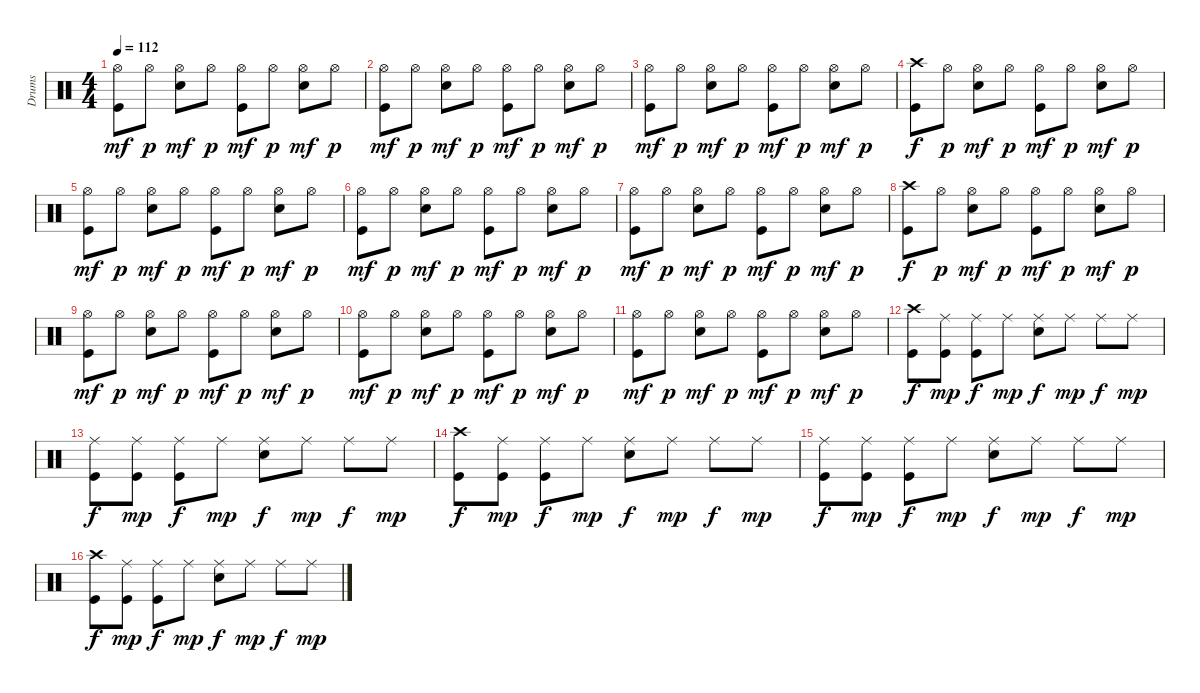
\track ("Drums" "Drums") {instrument percussion}
\staff {score}
\articulation defaults
\ts (4 4)
\tempo 112
\clef neutral
\ks c
("Hi-Hat (open)" "Kick (hit)").8{dy mf} "Hi-Hat (open)".8{dy p} ("Hi-Hat (open)" "Snare (hit) 2").8{dy mf} "Hi-Hat (open)".8{dy p} ("Hi-Hat (open)" "Kick (hit)").8{dy mf} "Hi-Hat (open)".8{dy p} ("Hi-Hat (open)" "Snare (hit) 2").8{dy mf} "Hi-Hat (open)".8{dy p} |
("Hi-Hat (open)" "Kick (hit)").8{dy mf} "Hi-Hat (open)".8{dy p} ("Hi-Hat (open)" "Snare (hit) 2").8{dy mf} "Hi-Hat (open)".8{dy p} ("Hi-Hat (open)" "Kick (hit)").8{dy mf} "Hi-Hat (open)".8{dy p} ("Hi-Hat (open)" "Snare (hit) 2").8{dy mf} "Hi-Hat (open)".8{dy p} |
("Hi-Hat (open)" "Kick (hit)").8{dy mf} "Hi-Hat (open)".8{dy p} ("Hi-Hat (open)" "Snare (hit) 2").8{dy mf} "Hi-Hat (open)".8{dy p} ("Hi-Hat (open)" "Kick (hit)").8{dy mf} "Hi-Hat (open)".8{dy p} ("Hi-Hat (open)" "Snare (hit) 2").8{dy mf} "Hi-Hat (open)".8{dy p} |
("Crash high (hit)" "Kick (hit)").8{dy f} "Hi-Hat (open)".8{dy p} ("Hi-Hat (open)" "Snare (hit) 2").8{dy mf} "Hi-Hat (open)".8{dy p} ("Hi-Hat (open)" "Kick (hit)").8{dy mf} "Hi-Hat (open)".8{dy p} ("Hi-Hat (open)" "Snare (hit) 2").8{dy mf} "Hi-Hat (open)".8{dy p} |
("Hi-Hat (open)" "Kick (hit)").8{dy mf} "Hi-Hat (open)".8{dy p} ("Hi-Hat (open)" "Snare (hit) 2").8{dy mf} "Hi-Hat (open)".8{dy p} ("Hi-Hat (open)" "Kick (hit)").8{dy mf} "Hi-Hat (open)".8{dy p} ("Hi-Hat (open)" "Snare (hit) 2").8{dy mf} "Hi-Hat (open)".8{dy p} |
("Hi-Hat (open)" "Kick (hit)").8{dy mf} "Hi-Hat (open)".8{dy p} ("Hi-Hat (open)" "Snare (hit) 2").8{dy mf} "Hi-Hat (open)".8{dy p} ("Hi-Hat (open)" "Kick (hit)").8{dy mf} "Hi-Hat (open)".8{dy p} ("Hi-Hat (open)" "Snare (hit) 2").8{dy mf} "Hi-Hat (open)".8{dy p} |
("Hi-Hat (open)" "Kick (hit)").8{dy mf} "Hi-Hat (open)".8{dy p} ("Hi-Hat (open)" "Snare (hit) 2").8{dy mf} "Hi-Hat (open)".8{dy p} ("Hi-Hat (open)" "Kick (hit)").8{dy mf} "Hi-Hat (open)".8{dy p} ("Hi-Hat (open)" "Snare (hit) 2").8{dy mf} "Hi-Hat (open)".8{dy p} |
("Crash high (hit)" "Kick (hit)").8{dy f} "Hi-Hat (open)".8{dy p} ("Hi-Hat (open)" "Snare (hit) 2").8{dy mf} "Hi-Hat (open)".8{dy p} ("Hi-Hat (open)" "Kick (hit)").8{dy mf} "Hi-Hat (open)".8{dy p} ("Hi-Hat (open)" "Snare (hit) 2").8{dy mf} "Hi-Hat (open)".8{dy p} |
("Hi-Hat (open)" "Kick (hit)").8{dy mf} "Hi-Hat (open)".8{dy p} ("Hi-Hat (open)" "Snare (hit) 2").8{dy mf} "Hi-Hat (open)".8{dy p} ("Hi-Hat (open)" "Kick (hit)").8{dy mf} "Hi-Hat (open)".8{dy p} ("Hi-Hat (open)" "Snare (hit) 2").8{dy mf} "Hi-Hat (open)".8{dy p} |
("Hi-Hat (open)" "Kick (hit)").8{dy mf} "Hi-Hat (open)".8{dy p} ("Hi-Hat (open)" "Snare (hit) 2").8{dy mf} "Hi-Hat (open)".8{dy p} ("Hi-Hat (open)" "Kick (hit)").8{dy mf} "Hi-Hat (open)".8{dy p} ("Hi-Hat (open)" "Snare (hit) 2").8{dy mf} "Hi-Hat (open)".8{dy p} |
("Hi-Hat (open)" "Kick (hit)").8{dy mf} "Hi-Hat (open)".8{dy p} ("Hi-Hat (open)" "Snare (hit) 2").8{dy mf} "Hi-Hat (open)".8{dy p} ("Hi-Hat (open)" "Kick (hit)").8{dy mf} "Hi-Hat (open)".8{dy p} ("Hi-Hat (open)" "Snare (hit) 2").8{dy mf} "Hi-Hat (open)".8{dy p} |
("Crash high (hit)" "Kick (hit)").8{dy f} ("Ride (middle)" "Kick (hit)").8{dy mp} ("Ride (middle)" "Kick (hit)").8{dy f} "Ride (middle)".8{dy mp} ("Ride (middle)" "Snare (hit) 2").8{dy f} "Ride (middle)".8{dy mp} "Ride (middle)".8{dy f} "Ride (middle)".8{dy mp} |
("Ride (middle)" "Kick (hit)").8{dy f} ("Ride (middle)" "Kick (hit)").8{dy mp} ("Ride (middle)" "Kick (hit)").8{dy f} "Ride (middle)".8{dy mp} ("Ride (middle)" "Snare (hit) 2").8{dy f} "Ride (middle)".8{dy mp} "Ride (middle)".8{dy f} "Ride (middle)".8{dy mp} |
("Crash high (hit)" "Kick (hit)").8{dy f} ("Ride (middle)" "Kick (hit)").8{dy mp} ("Ride (middle)" "Kick (hit)").8{dy f} "Ride (middle)".8{dy mp} ("Ride (middle)" "Snare (hit) 2").8{dy f} "Ride (middle)".8{dy mp} "Ride (middle)".8{dy f} "Ride (middle)".8{dy mp} |
("Ride (middle)" "Kick (hit)").8{dy f} ("Ride (middle)" "Kick (hit)").8{dy mp} ("Ride (middle)" "Kick (hit)").8{dy f} "Ride (middle)".8{dy mp} ("Ride (middle)" "Snare (hit) 2").8{dy f} "Ride (middle)".8{dy mp} "Ride (middle)".8{dy f} "Ride (middle)".8{dy mp} |
("Crash high (hit)" "Kick (hit)").8{dy f} ("Ride (middle)" "Kick (hit)").8{dy mp} ("Ride (middle)" "Kick (hit)").8{dy f} "Ride (middle)".8{dy mp} ("Ride (middle)" "Snare (hit) 2").8{dy f} "Ride (middle)".8{dy mp} "Ride (middle)".8{dy f} "Ride (middle)".8{dy mp}
